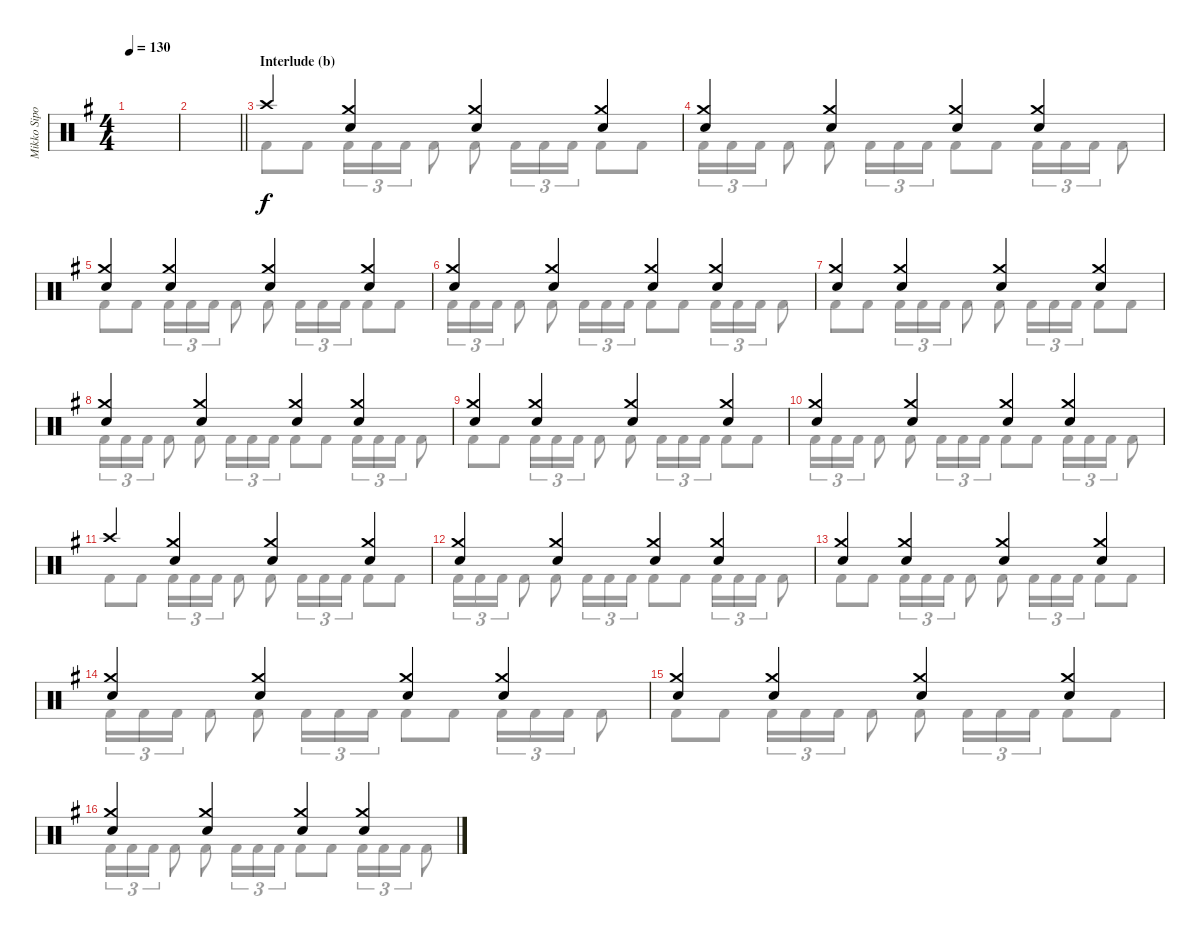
\track ("Mikko Sipola (drums)" "Mikko Sipo") {instrument percussion}
\staff {score}
\articulation defaults
\voice
\ts (4 4)
\tempo 130
\clef neutral
\ks eminor
|
\barLineRight lightlight
|
\section ("" "Interlude (b)")
"Crash high (hit)".4 ("Crash medium (hit)" "Electric Snare (hit)").4 ("Crash medium (hit)" "Electric Snare (hit)").4 ("Crash medium (hit)" "Electric Snare (hit)").4 |
("Crash medium (hit)" "Electric Snare (hit)").4 ("Crash medium (hit)" "Electric Snare (hit)").4 ("Crash medium (hit)" "Electric Snare (hit)").4 ("Crash medium (hit)" "Electric Snare (hit)").4 |
("Crash medium (hit)" "Electric Snare (hit)").4 ("Crash medium (hit)" "Electric Snare (hit)").4 ("Crash medium (hit)" "Electric Snare (hit)").4 ("Crash medium (hit)" "Electric Snare (hit)").4 |
("Crash medium (hit)" "Electric Snare (hit)").4 ("Crash medium (hit)" "Electric Snare (hit)").4 ("Crash medium (hit)" "Electric Snare (hit)").4 ("Crash medium (hit)" "Electric Snare (hit)").4 |
("Crash medium (hit)" "Electric Snare (hit)").4 ("Crash medium (hit)" "Electric Snare (hit)").4 ("Crash medium (hit)" "Electric Snare (hit)").4 ("Crash medium (hit)" "Electric Snare (hit)").4 |
("Crash medium (hit)" "Electric Snare (hit)").4 ("Crash medium (hit)" "Electric Snare (hit)").4 ("Crash medium (hit)" "Electric Snare (hit)").4 ("Crash medium (hit)" "Electric Snare (hit)").4 |
("Crash medium (hit)" "Electric Snare (hit)").4 ("Crash medium (hit)" "Electric Snare (hit)").4 ("Crash medium (hit)" "Electric Snare (hit)").4 ("Crash medium (hit)" "Electric Snare (hit)").4 |
("Crash medium (hit)" "Electric Snare (hit)").4 ("Crash medium (hit)" "Electric Snare (hit)").4 ("Crash medium (hit)" "Electric Snare (hit)").4 ("Crash medium (hit)" "Electric Snare (hit)").4 |
"Crash high (hit)".4 ("Crash medium (hit)" "Electric Snare (hit)").4 ("Crash medium (hit)" "Electric Snare (hit)").4 ("Crash medium (hit)" "Electric Snare (hit)").4 |
("Crash medium (hit)" "Electric Snare (hit)").4 ("Crash medium (hit)" "Electric Snare (hit)").4 ("Crash medium (hit)" "Electric Snare (hit)").4 ("Crash medium (hit)" "Electric Snare (hit)").4 |
("Crash medium (hit)" "Electric Snare (hit)").4 ("Crash medium (hit)" "Electric Snare (hit)").4 ("Crash medium (hit)" "Electric Snare (hit)").4 ("Crash medium (hit)" "Electric Snare (hit)").4 |
("Crash medium (hit)" "Electric Snare (hit)").4 ("Crash medium (hit)" "Electric Snare (hit)").4 ("Crash medium (hit)" "Electric Snare (hit)").4 ("Crash medium (hit)" "Electric Snare (hit)").4 |
("Crash medium (hit)" "Electric Snare (hit)").4 ("Crash medium (hit)" "Electric Snare (hit)").4 ("Crash medium (hit)" "Electric Snare (hit)").4 ("Crash medium (hit)" "Electric Snare (hit)").4 |
("Crash medium (hit)" "Electric Snare (hit)").4 ("Crash medium (hit)" "Electric Snare (hit)").4 ("Crash medium (hit)" "Electric Snare (hit)").4 ("Crash medium (hit)" "Electric Snare (hit)").4
\voice
\clef neutral
\ottava regular
\simile none
\ks eminor
|
\barLineRight lightlight
|
"Kick (hit) 2".8 "Kick (hit) 2".8 "Kick (hit) 2".16{tu (3 2)} "Kick (hit) 2".16{tu (3 2)} "Kick (hit) 2".16{tu (3 2)} "Kick (hit) 2".8 "Kick (hit) 2".8 "Kick (hit) 2".16{tu (3 2)} "Kick (hit) 2".16{tu (3 2)} "Kick (hit) 2".16{tu (3 2)} "Kick (hit) 2".8 "Kick (hit) 2".8 |
"Kick (hit) 2".16{tu (3 2)} "Kick (hit) 2".16{tu (3 2)} "Kick (hit) 2".16{tu (3 2)} "Kick (hit) 2".8 "Kick (hit) 2".8 "Kick (hit) 2".16{tu (3 2)} "Kick (hit) 2".16{tu (3 2)} "Kick (hit) 2".16{tu (3 2)} "Kick (hit) 2".8 "Kick (hit) 2".8 "Kick (hit) 2".16{tu (3 2)} "Kick (hit) 2".16{tu (3 2)} "Kick (hit) 2".16{tu (3 2)} "Kick (hit) 2".8 |
"Kick (hit) 2".8 "Kick (hit) 2".8 "Kick (hit) 2".16{tu (3 2)} "Kick (hit) 2".16{tu (3 2)} "Kick (hit) 2".16{tu (3 2)} "Kick (hit) 2".8 "Kick (hit) 2".8 "Kick (hit) 2".16{tu (3 2)} "Kick (hit) 2".16{tu (3 2)} "Kick (hit) 2".16{tu (3 2)} "Kick (hit) 2".8 "Kick (hit) 2".8 |
"Kick (hit) 2".16{tu (3 2)} "Kick (hit) 2".16{tu (3 2)} "Kick (hit) 2".16{tu (3 2)} "Kick (hit) 2".8 "Kick (hit) 2".8 "Kick (hit) 2".16{tu (3 2)} "Kick (hit) 2".16{tu (3 2)} "Kick (hit) 2".16{tu (3 2)} "Kick (hit) 2".8 "Kick (hit) 2".8 "Kick (hit) 2".16{tu (3 2)} "Kick (hit) 2".16{tu (3 2)} "Kick (hit) 2".16{tu (3 2)} "Kick (hit) 2".8 |
"Kick (hit) 2".8 "Kick (hit) 2".8 "Kick (hit) 2".16{tu (3 2)} "Kick (hit) 2".16{tu (3 2)} "Kick (hit) 2".16{tu (3 2)} "Kick (hit) 2".8 "Kick (hit) 2".8 "Kick (hit) 2".16{tu (3 2)} "Kick (hit) 2".16{tu (3 2)} "Kick (hit) 2".16{tu (3 2)} "Kick (hit) 2".8 "Kick (hit) 2".8 |
"Kick (hit) 2".16{tu (3 2)} "Kick (hit) 2".16{tu (3 2)} "Kick (hit) 2".16{tu (3 2)} "Kick (hit) 2".8 "Kick (hit) 2".8 "Kick (hit) 2".16{tu (3 2)} "Kick (hit) 2".16{tu (3 2)} "Kick (hit) 2".16{tu (3 2)} "Kick (hit) 2".8 "Kick (hit) 2".8 "Kick (hit) 2".16{tu (3 2)} "Kick (hit) 2".16{tu (3 2)} "Kick (hit) 2".16{tu (3 2)} "Kick (hit) 2".8 |
"Kick (hit) 2".8 "Kick (hit) 2".8 "Kick (hit) 2".16{tu (3 2)} "Kick (hit) 2".16{tu (3 2)} "Kick (hit) 2".16{tu (3 2)} "Kick (hit) 2".8 "Kick (hit) 2".8 "Kick (hit) 2".16{tu (3 2)} "Kick (hit) 2".16{tu (3 2)} "Kick (hit) 2".16{tu (3 2)} "Kick (hit) 2".8 "Kick (hit) 2".8 |
"Kick (hit) 2".16{tu (3 2)} "Kick (hit) 2".16{tu (3 2)} "Kick (hit) 2".16{tu (3 2)} "Kick (hit) 2".8 "Kick (hit) 2".8 "Kick (hit) 2".16{tu (3 2)} "Kick (hit) 2".16{tu (3 2)} "Kick (hit) 2".16{tu (3 2)} "Kick (hit) 2".8 "Kick (hit) 2".8 "Kick (hit) 2".16{tu (3 2)} "Kick (hit) 2".16{tu (3 2)} "Kick (hit) 2".16{tu (3 2)} "Kick (hit) 2".8 |
"Kick (hit) 2".8 "Kick (hit) 2".8 "Kick (hit) 2".16{tu (3 2)} "Kick (hit) 2".16{tu (3 2)} "Kick (hit) 2".16{tu (3 2)} "Kick (hit) 2".8 "Kick (hit) 2".8 "Kick (hit) 2".16{tu (3 2)} "Kick (hit) 2".16{tu (3 2)} "Kick (hit) 2".16{tu (3 2)} "Kick (hit) 2".8 "Kick (hit) 2".8 |
"Kick (hit) 2".16{tu (3 2)} "Kick (hit) 2".16{tu (3 2)} "Kick (hit) 2".16{tu (3 2)} "Kick (hit) 2".8 "Kick (hit) 2".8 "Kick (hit) 2".16{tu (3 2)} "Kick (hit) 2".16{tu (3 2)} "Kick (hit) 2".16{tu (3 2)} "Kick (hit) 2".8 "Kick (hit) 2".8 "Kick (hit) 2".16{tu (3 2)} "Kick (hit) 2".16{tu (3 2)} "Kick (hit) 2".16{tu (3 2)} "Kick (hit) 2".8 |
"Kick (hit) 2".8 "Kick (hit) 2".8 "Kick (hit) 2".16{tu (3 2)} "Kick (hit) 2".16{tu (3 2)} "Kick (hit) 2".16{tu (3 2)} "Kick (hit) 2".8 "Kick (hit) 2".8 "Kick (hit) 2".16{tu (3 2)} "Kick (hit) 2".16{tu (3 2)} "Kick (hit) 2".16{tu (3 2)} "Kick (hit) 2".8 "Kick (hit) 2".8 |
"Kick (hit) 2".16{tu (3 2)} "Kick (hit) 2".16{tu (3 2)} "Kick (hit) 2".16{tu (3 2)} "Kick (hit) 2".8 "Kick (hit) 2".8 "Kick (hit) 2".16{tu (3 2)} "Kick (hit) 2".16{tu (3 2)} "Kick (hit) 2".16{tu (3 2)} "Kick (hit) 2".8 "Kick (hit) 2".8 "Kick (hit) 2".16{tu (3 2)} "Kick (hit) 2".16{tu (3 2)} "Kick (hit) 2".16{tu (3 2)} "Kick (hit) 2".8 |
"Kick (hit) 2".8 "Kick (hit) 2".8 "Kick (hit) 2".16{tu (3 2)} "Kick (hit) 2".16{tu (3 2)} "Kick (hit) 2".16{tu (3 2)} "Kick (hit) 2".8 "Kick (hit) 2".8 "Kick (hit) 2".16{tu (3 2)} "Kick (hit) 2".16{tu (3 2)} "Kick (hit) 2".16{tu (3 2)} "Kick (hit) 2".8 "Kick (hit) 2".8 |
"Kick (hit) 2".16{tu (3 2)} "Kick (hit) 2".16{tu (3 2)} "Kick (hit) 2".16{tu (3 2)} "Kick (hit) 2".8 "Kick (hit) 2".8 "Kick (hit) 2".16{tu (3 2)} "Kick (hit) 2".16{tu (3 2)} "Kick (hit) 2".16{tu (3 2)} "Kick (hit) 2".8 "Kick (hit) 2".8 "Kick (hit) 2".16{tu (3 2)} "Kick (hit) 2".16{tu (3 2)} "Kick (hit) 2".16{tu (3 2)} "Kick (hit) 2".8
